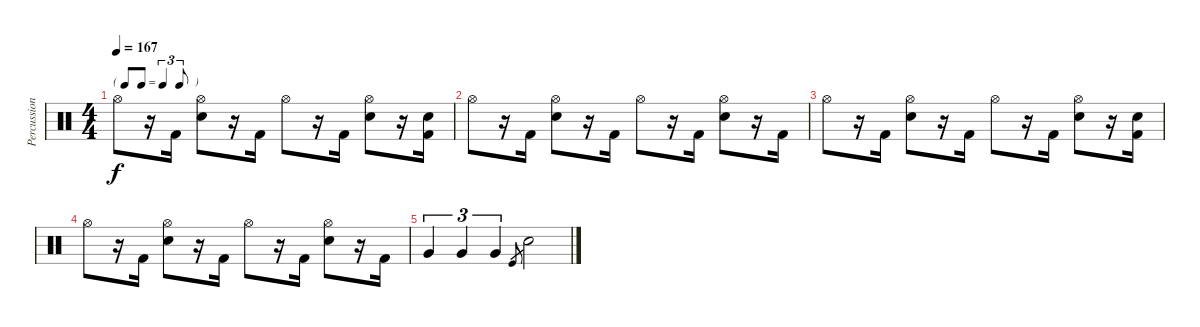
\track ("Percussion" "Percussion") {instrument percussion}
\staff {score}
\articulation defaults
\ts (4 4)
\tf triplet8th
\tempo 167
\clef neutral
\ks c "Hi-Hat (open)".8{dy f}
r.16 "Kick (hit) 2".16 ("Electric Snare (hit)" "Hi-Hat (open)").8 r.16 "Kick (hit) 2".16 "Hi-Hat (open)".8 r.16 "Kick (hit) 2".16 ("Hi-Hat (open)" "Electric Snare (hit)").8 r.16 ("Electric Snare (hit)" "Kick (hit) 2").16 |
"Hi-Hat (open)".8 r.16 "Kick (hit) 2".16 ("Electric Snare (hit)" "Hi-Hat (open)").8 r.16 "Kick (hit) 2".16 "Hi-Hat (open)".8 r.16 "Kick (hit) 2".16 ("Hi-Hat (open)" "Electric Snare (hit)").8 r.16 "Kick (hit) 2".16 |
"Hi-Hat (open)".8 r.16 "Kick (hit) 2".16 ("Electric Snare (hit)" "Hi-Hat (open)").8 r.16 "Kick (hit) 2".16 "Hi-Hat (open)".8 r.16 "Kick (hit) 2".16 ("Hi-Hat (open)" "Electric Snare (hit)").8 r.16 ("Electric Snare (hit)" "Kick (hit) 2").16 |
"Hi-Hat (open)".8 r.16 "Kick (hit) 2".16 ("Electric Snare (hit)" "Hi-Hat (open)").8 r.16 "Kick (hit) 2".16 "Hi-Hat (open)".8 r.16 "Kick (hit) 2".16 ("Hi-Hat (open)" "Electric Snare (hit)").8 r.16 "Kick (hit) 2".16 |
"Very Low Tom (hit)".4{tu (3 2)} "Very Low Tom (hit)".4{tu (3 2)} "Very Low Tom (hit)".4{tu (3 2)} "Kick (hit)".8{gr} "Electric Snare (hit)".2
